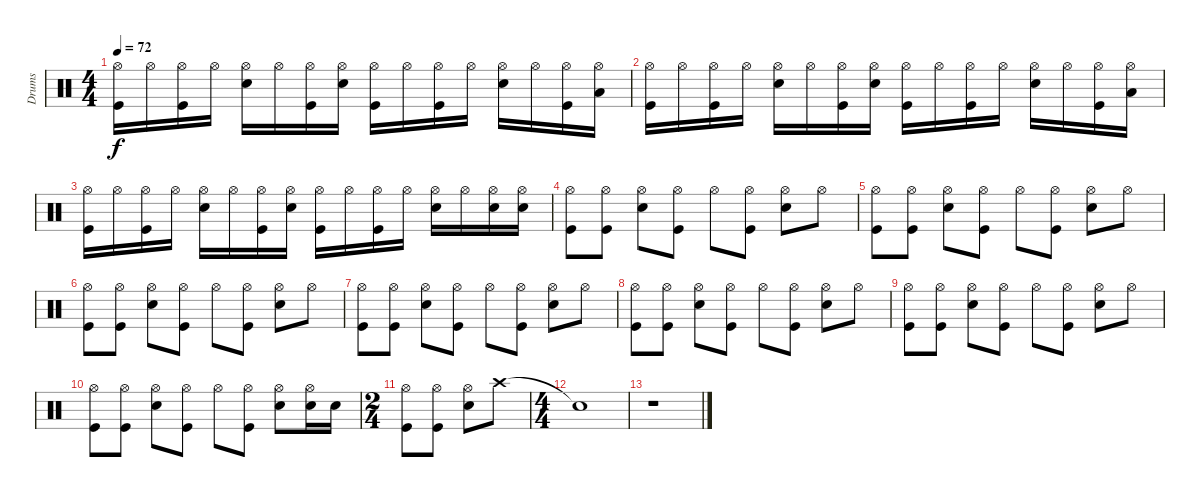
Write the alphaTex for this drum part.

\track ("Drums" "Drums") {instrument percussion}
\staff {score}
\articulation defaults
\ts (4 4)
\tempo 72
\clef neutral
\ks c
("Kick (hit)" "Hi-Hat (open)").16{dy f} "Hi-Hat (open)".16 ("Kick (hit)" "Hi-Hat (open)").16 "Hi-Hat (open)".16 ("Snare (hit) 2" "Hi-Hat (open)").16 "Hi-Hat (open)".16 ("Kick (hit)" "Hi-Hat (open)").16 ("Snare (hit) 2" "Hi-Hat (open)").16 ("Kick (hit)" "Hi-Hat (open)").16 "Hi-Hat (open)".16 ("Kick (hit)" "Hi-Hat (open)").16 "Hi-Hat (open)".16 ("Snare (hit) 2" "Hi-Hat (open)").16 "Hi-Hat (open)".16 ("Kick (hit)" "Hi-Hat (open)").16 ("Low Tom (hit)" "Hi-Hat (open)").16 |
("Kick (hit)" "Hi-Hat (open)").16 "Hi-Hat (open)".16 ("Kick (hit)" "Hi-Hat (open)").16 "Hi-Hat (open)".16 ("Snare (hit) 2" "Hi-Hat (open)").16 "Hi-Hat (open)".16 ("Hi-Hat (open)" "Kick (hit)").16 ("Snare (hit) 2" "Hi-Hat (open)").16 ("Kick (hit)" "Hi-Hat (open)").16 "Hi-Hat (open)".16 ("Kick (hit)" "Hi-Hat (open)").16 "Hi-Hat (open)".16 ("Snare (hit) 2" "Hi-Hat (open)").16 "Hi-Hat (open)".16 ("Kick (hit)" "Hi-Hat (open)").16 ("Low Tom (hit)" "Hi-Hat (open)").16 |
("Kick (hit)" "Hi-Hat (open)").16 "Hi-Hat (open)".16 ("Kick (hit)" "Hi-Hat (open)").16 "Hi-Hat (open)".16 ("Snare (hit) 2" "Hi-Hat (open)").16 "Hi-Hat (open)".16 ("Hi-Hat (open)" "Kick (hit)").16 ("Snare (hit) 2" "Hi-Hat (open)").16 ("Kick (hit)" "Hi-Hat (open)").16 "Hi-Hat (open)".16 ("Kick (hit)" "Hi-Hat (open)").16 "Hi-Hat (open)".16 ("Snare (hit) 2" "Hi-Hat (open)").16 "Hi-Hat (open)".16 ("Hi-Hat (open)" "Snare (hit) 2").16 ("Snare (hit) 2" "Hi-Hat (open)").16 |
("Kick (hit)" "Hi-Hat (open)").8 ("Kick (hit)" "Hi-Hat (open)").8 ("Snare (hit) 2" "Hi-Hat (open)").8 ("Kick (hit)" "Hi-Hat (open)").8 "Hi-Hat (open)".8 ("Kick (hit)" "Hi-Hat (open)").8 ("Snare (hit) 2" "Hi-Hat (open)").8 "Hi-Hat (open)".8 |
("Kick (hit)" "Hi-Hat (open)").8 ("Kick (hit)" "Hi-Hat (open)").8 ("Snare (hit) 2" "Hi-Hat (open)").8 ("Kick (hit)" "Hi-Hat (open)").8 "Hi-Hat (open)".8 ("Kick (hit)" "Hi-Hat (open)").8 ("Snare (hit) 2" "Hi-Hat (open)").8 "Hi-Hat (open)".8 |
("Kick (hit)" "Hi-Hat (open)").8 ("Kick (hit)" "Hi-Hat (open)").8 ("Snare (hit) 2" "Hi-Hat (open)").8 ("Kick (hit)" "Hi-Hat (open)").8 "Hi-Hat (open)".8 ("Kick (hit)" "Hi-Hat (open)").8 ("Snare (hit) 2" "Hi-Hat (open)").8 "Hi-Hat (open)".8 |
("Kick (hit)" "Hi-Hat (open)").8 ("Kick (hit)" "Hi-Hat (open)").8 ("Snare (hit) 2" "Hi-Hat (open)").8 ("Kick (hit)" "Hi-Hat (open)").8 "Hi-Hat (open)".8 ("Kick (hit)" "Hi-Hat (open)").8 ("Snare (hit) 2" "Hi-Hat (open)").8 "Hi-Hat (open)".8 |
("Kick (hit)" "Hi-Hat (open)").8 ("Kick (hit)" "Hi-Hat (open)").8 ("Snare (hit) 2" "Hi-Hat (open)").8 ("Kick (hit)" "Hi-Hat (open)").8 "Hi-Hat (open)".8 ("Kick (hit)" "Hi-Hat (open)").8 ("Snare (hit) 2" "Hi-Hat (open)").8 "Hi-Hat (open)".8 |
("Kick (hit)" "Hi-Hat (open)").8 ("Kick (hit)" "Hi-Hat (open)").8 ("Snare (hit) 2" "Hi-Hat (open)").8 ("Kick (hit)" "Hi-Hat (open)").8 "Hi-Hat (open)".8 ("Kick (hit)" "Hi-Hat (open)").8 ("Snare (hit) 2" "Hi-Hat (open)").8 "Hi-Hat (open)".8 |
("Kick (hit)" "Hi-Hat (open)").8 ("Kick (hit)" "Hi-Hat (open)").8 ("Snare (hit) 2" "Hi-Hat (open)").8 ("Kick (hit)" "Hi-Hat (open)").8 "Hi-Hat (open)".8 ("Kick (hit)" "Hi-Hat (open)").8 ("Hi-Hat (open)" "Snare (hit) 2").8 ("Hi-Hat (open)" "Snare (hit) 2").16 "Snare (hit) 2".16 |
\ts (2 4)
("Kick (hit)" "Hi-Hat (open)").8 ("Kick (hit)" "Hi-Hat (open)").8 ("Snare (hit) 2" "Hi-Hat (open)").8 "Crash high (hit)".8 |
\ts (4 4)
"Snare (hit)"{t}.1 |
r.1
